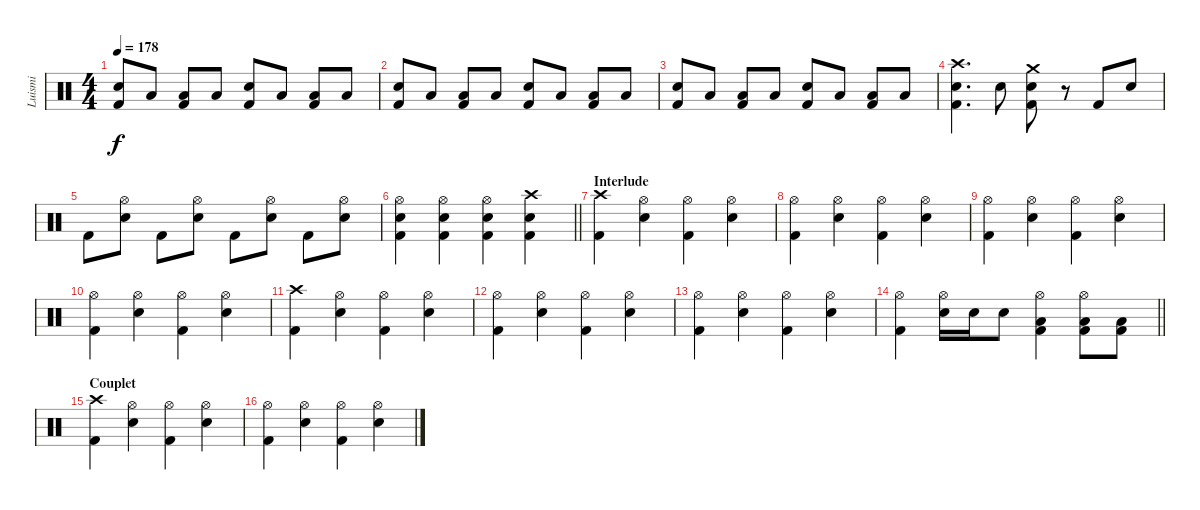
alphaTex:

\track ("Luismi" "Luismi") {instrument percussion}
\staff {score}
\articulation defaults
\ts (4 4)
\tempo 178
\clef neutral
\ks c
("Snare (hit) 2" "Kick (hit) 2").8{dy f} "Low Tom (hit)".8 ("Low Floor Tom (hit)" "Kick (hit) 2").8 "Low Floor Tom (hit)".8 ("Snare (hit) 2" "Kick (hit) 2").8 "Low Tom (hit)".8 ("Low Floor Tom (hit)" "Kick (hit) 2").8 "Low Floor Tom (hit)".8 |
("Snare (hit) 2" "Kick (hit) 2").8 "Low Tom (hit)".8 ("Low Floor Tom (hit)" "Kick (hit) 2").8 "Low Floor Tom (hit)".8 ("Snare (hit) 2" "Kick (hit) 2").8 "Low Tom (hit)".8 ("Low Floor Tom (hit)" "Kick (hit) 2").8 "Low Floor Tom (hit)".8 |
("Snare (hit) 2" "Kick (hit) 2").8 "Low Tom (hit)".8 ("Low Floor Tom (hit)" "Kick (hit) 2").8 "Low Floor Tom (hit)".8 ("Snare (hit) 2" "Kick (hit) 2").8 "Low Tom (hit)".8 ("Low Floor Tom (hit)" "Kick (hit) 2").8 "Low Floor Tom (hit)".8 |
("Crash high (hit)" "Snare (hit) 2" "Kick (hit) 2").4{d} "Snare (hit) 2".8 ("Crash medium (hit)" "Snare (hit) 2" "Kick (hit) 2").8 r.8 "Kick (hit) 2".8 "Snare (hit) 2".8 |
"Kick (hit) 2".8 ("Hi-Hat (open)" "Snare (hit) 2").8 "Kick (hit) 2".8 ("Hi-Hat (open)" "Snare (hit) 2").8 "Kick (hit) 2".8 ("Hi-Hat (open)" "Snare (hit) 2").8 "Kick (hit) 2".8 ("Hi-Hat (open)" "Snare (hit) 2").8 |
\barLineRight lightlight
("Hi-Hat (open)" "Snare (hit) 2" "Kick (hit) 2").4 ("Hi-Hat (open)" "Snare (hit) 2" "Kick (hit) 2").4 ("Hi-Hat (open)" "Snare (hit) 2" "Kick (hit) 2").4 ("Crash high (hit)" "Snare (hit) 2" "Kick (hit) 2").4 |
\section ("" "Interlude")
("Crash high (hit)" "Kick (hit) 2").4 ("Hi-Hat (open)" "Snare (hit) 2").4 ("Hi-Hat (open)" "Kick (hit) 2").4 ("Hi-Hat (open)" "Snare (hit) 2").4 |
("Hi-Hat (open)" "Kick (hit) 2").4 ("Hi-Hat (open)" "Snare (hit) 2").4 ("Hi-Hat (open)" "Kick (hit) 2").4 ("Hi-Hat (open)" "Snare (hit) 2").4 |
("Hi-Hat (open)" "Kick (hit) 2").4 ("Hi-Hat (open)" "Snare (hit) 2").4 ("Hi-Hat (open)" "Kick (hit) 2").4 ("Hi-Hat (open)" "Snare (hit) 2").4 |
("Hi-Hat (open)" "Kick (hit) 2").4 ("Hi-Hat (open)" "Snare (hit) 2").4 ("Hi-Hat (open)" "Kick (hit) 2").4 ("Hi-Hat (open)" "Snare (hit) 2").4 |
("Crash high (hit)" "Kick (hit) 2").4 ("Hi-Hat (open)" "Snare (hit) 2").4 ("Hi-Hat (open)" "Kick (hit) 2").4 ("Hi-Hat (open)" "Snare (hit) 2").4 |
("Hi-Hat (open)" "Kick (hit) 2").4 ("Hi-Hat (open)" "Snare (hit) 2").4 ("Hi-Hat (open)" "Kick (hit) 2").4 ("Hi-Hat (open)" "Snare (hit) 2").4 |
("Hi-Hat (open)" "Kick (hit) 2").4 ("Hi-Hat (open)" "Snare (hit) 2").4 ("Hi-Hat (open)" "Kick (hit) 2").4 ("Hi-Hat (open)" "Snare (hit) 2").4 |
\barLineRight lightlight
("Hi-Hat (open)" "Kick (hit) 2").4 ("Hi-Hat (open)" "Snare (hit) 2").16 "Snare (hit) 2".16 "Snare (hit) 2".8 ("Hi-Hat (open)" "Low Floor Tom (hit)" "Kick (hit) 2").4 ("Hi-Hat (open)" "Low Tom (hit)" "Kick (hit) 2").8 ("Low Floor Tom (hit)" "Kick (hit) 2").8 |
\section ("" "Couplet")
("Crash high (hit)" "Kick (hit) 2").4 ("Hi-Hat (open)" "Snare (hit) 2").4 ("Hi-Hat (open)" "Kick (hit) 2").4 ("Hi-Hat (open)" "Snare (hit) 2").4 |
("Hi-Hat (open)" "Kick (hit) 2").4 ("Hi-Hat (open)" "Snare (hit) 2").4 ("Hi-Hat (open)" "Kick (hit) 2").4 ("Hi-Hat (open)" "Snare (hit) 2").4
